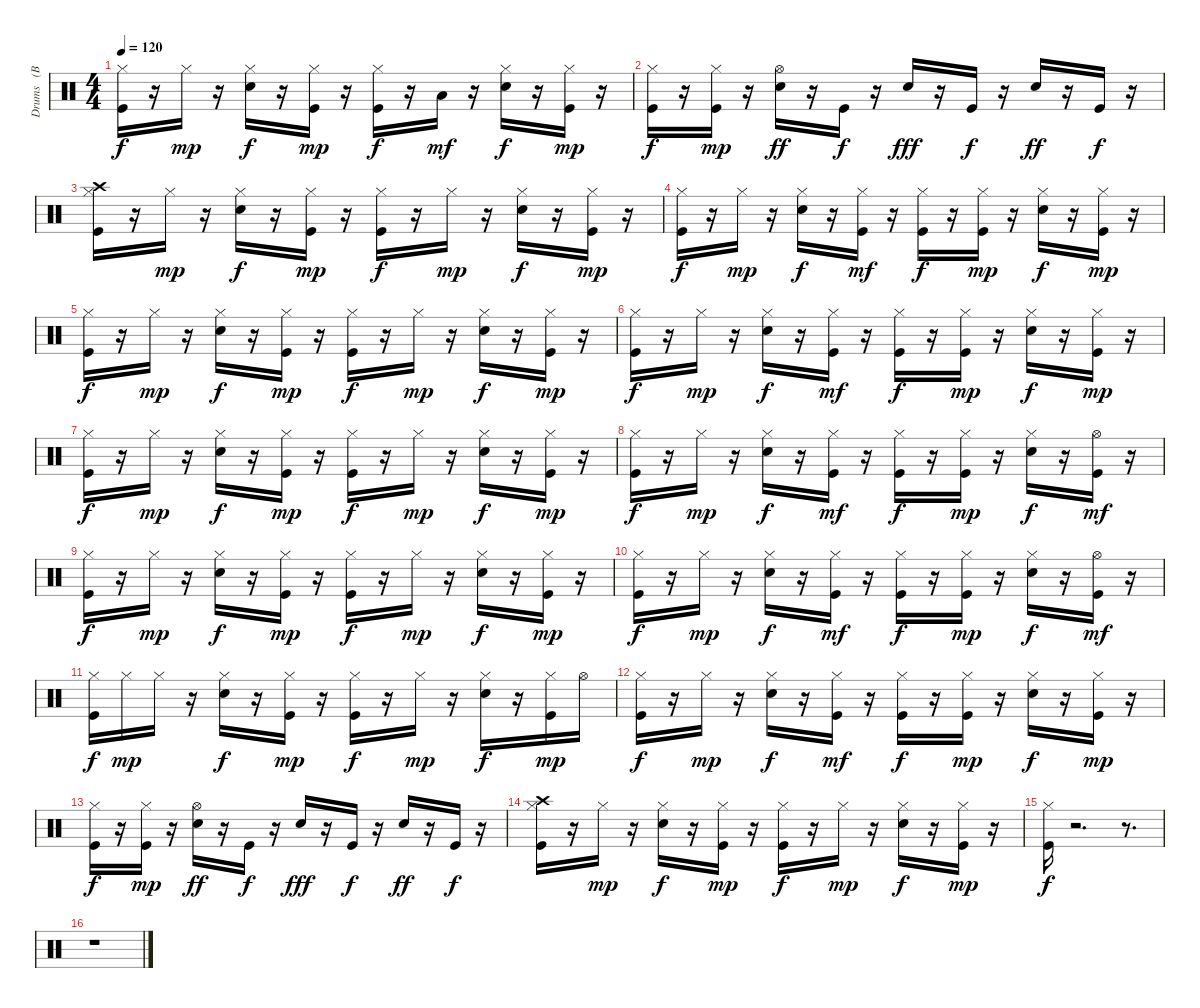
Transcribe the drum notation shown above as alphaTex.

\track ("Drums   (BB)" "Drums   (B") {instrument percussion}
\staff {score}
\articulation defaults
\ts (4 4)
\tempo 120
\clef neutral
\ks c
("Kick (hit)" "Hi-Hat (closed)").16{dy f} r.16 "Hi-Hat (closed)".16{dy mp} r.16 ("Snare (hit) 2" "Hi-Hat (closed)").16{dy f} r.16 ("Kick (hit)" "Hi-Hat (closed)").16{dy mp} r.16 ("Kick (hit)" "Hi-Hat (closed)").16{dy f} r.16 "Low Floor Tom (hit)".16{dy mf} r.16 ("Snare (hit) 2" "Hi-Hat (closed)").16{dy f} r.16 ("Kick (hit)" "Hi-Hat (closed)").16{dy mp} r.16 |
("Kick (hit)" "Hi-Hat (closed)").16{dy f} r.16 ("Kick (hit)" "Hi-Hat (closed)").16{dy mp} r.16 ("Snare (hit) 2" "Hi-Hat (open)").16{dy ff} r.16 "Kick (hit)".16{dy f} r.16 "Snare (hit) 2".16{dy fff} r.16 "Kick (hit)".16{dy f} r.16 "Snare (hit) 2".16{dy ff} r.16 "Kick (hit)".16{dy f} r.16 |
("Kick (hit)" "Hi-Hat (closed)" "Crash high (hit)").16 r.16 "Hi-Hat (closed)".16{dy mp} r.16 ("Snare (hit) 2" "Hi-Hat (closed)").16{dy f} r.16 ("Kick (hit)" "Hi-Hat (closed)").16{dy mp} r.16 ("Kick (hit)" "Hi-Hat (closed)").16{dy f} r.16 "Hi-Hat (closed)".16{dy mp} r.16 ("Snare (hit) 2" "Hi-Hat (closed)").16{dy f} r.16 ("Kick (hit)" "Hi-Hat (closed)").16{dy mp} r.16 |
("Kick (hit)" "Hi-Hat (closed)").16{dy f} r.16 "Hi-Hat (closed)".16{dy mp} r.16 ("Snare (hit) 2" "Hi-Hat (closed)").16{dy f} r.16 ("Kick (hit)" "Hi-Hat (closed)").16{dy mf} r.16 ("Kick (hit)" "Hi-Hat (closed)").16{dy f} r.16 ("Kick (hit)" "Hi-Hat (closed)").16{dy mp} r.16 ("Snare (hit) 2" "Hi-Hat (closed)").16{dy f} r.16 ("Kick (hit)" "Hi-Hat (closed)").16{dy mp} r.16 |
("Kick (hit)" "Hi-Hat (closed)").16{dy f} r.16 "Hi-Hat (closed)".16{dy mp} r.16 ("Snare (hit) 2" "Hi-Hat (closed)").16{dy f} r.16 ("Kick (hit)" "Hi-Hat (closed)").16{dy mp} r.16 ("Kick (hit)" "Hi-Hat (closed)").16{dy f} r.16 "Hi-Hat (closed)".16{dy mp} r.16 ("Snare (hit) 2" "Hi-Hat (closed)").16{dy f} r.16 ("Kick (hit)" "Hi-Hat (closed)").16{dy mp} r.16 |
("Kick (hit)" "Hi-Hat (closed)").16{dy f} r.16 "Hi-Hat (closed)".16{dy mp} r.16 ("Snare (hit) 2" "Hi-Hat (closed)").16{dy f} r.16 ("Kick (hit)" "Hi-Hat (closed)").16{dy mf} r.16 ("Kick (hit)" "Hi-Hat (closed)").16{dy f} r.16 ("Kick (hit)" "Hi-Hat (closed)").16{dy mp} r.16 ("Snare (hit) 2" "Hi-Hat (closed)").16{dy f} r.16 ("Kick (hit)" "Hi-Hat (closed)").16{dy mp} r.16 |
("Kick (hit)" "Hi-Hat (closed)").16{dy f} r.16 "Hi-Hat (closed)".16{dy mp} r.16 ("Snare (hit) 2" "Hi-Hat (closed)").16{dy f} r.16 ("Kick (hit)" "Hi-Hat (closed)").16{dy mp} r.16 ("Kick (hit)" "Hi-Hat (closed)").16{dy f} r.16 "Hi-Hat (closed)".16{dy mp} r.16 ("Snare (hit) 2" "Hi-Hat (closed)").16{dy f} r.16 ("Kick (hit)" "Hi-Hat (closed)").16{dy mp} r.16 |
("Kick (hit)" "Hi-Hat (closed)").16{dy f} r.16 "Hi-Hat (closed)".16{dy mp} r.16 ("Snare (hit) 2" "Hi-Hat (closed)").16{dy f} r.16 ("Kick (hit)" "Hi-Hat (closed)").16{dy mf} r.16 ("Kick (hit)" "Hi-Hat (closed)").16{dy f} r.16 ("Kick (hit)" "Hi-Hat (closed)").16{dy mp} r.16 ("Snare (hit) 2" "Hi-Hat (closed)").16{dy f} r.16 ("Kick (hit)" "Hi-Hat (open)").16{dy mf} r.16 |
("Kick (hit)" "Hi-Hat (closed)").16{dy f} r.16 "Hi-Hat (closed)".16{dy mp} r.16 ("Snare (hit) 2" "Hi-Hat (closed)").16{dy f} r.16 ("Kick (hit)" "Hi-Hat (closed)").16{dy mp} r.16 ("Kick (hit)" "Hi-Hat (closed)").16{dy f} r.16 "Hi-Hat (closed)".16{dy mp} r.16 ("Snare (hit) 2" "Hi-Hat (closed)").16{dy f} r.16 ("Kick (hit)" "Hi-Hat (closed)").16{dy mp} r.16 |
("Kick (hit)" "Hi-Hat (closed)").16{dy f} r.16 "Hi-Hat (closed)".16{dy mp} r.16 ("Snare (hit) 2" "Hi-Hat (closed)").16{dy f} r.16 ("Kick (hit)" "Hi-Hat (closed)").16{dy mf} r.16 ("Kick (hit)" "Hi-Hat (closed)").16{dy f} r.16 ("Kick (hit)" "Hi-Hat (closed)").16{dy mp} r.16 ("Snare (hit) 2" "Hi-Hat (closed)").16{dy f} r.16 ("Kick (hit)" "Hi-Hat (open)").16{dy mf} r.16 |
("Kick (hit)" "Hi-Hat (closed)").16{dy f} "Hi-Hat (closed)".16{dy mp} "Hi-Hat (closed)".16 r.16 ("Snare (hit) 2" "Hi-Hat (closed)").16{dy f} r.16 ("Kick (hit)" "Hi-Hat (closed)").16{dy mp} r.16 ("Kick (hit)" "Hi-Hat (closed)").16{dy f} r.16 "Hi-Hat (closed)".16{dy mp} r.16 ("Snare (hit) 2" "Hi-Hat (closed)").16{dy f} r.16 ("Kick (hit)" "Hi-Hat (closed)").16{dy mp} "Hi-Hat (open)".16 |
("Kick (hit)" "Hi-Hat (closed)").16{dy f} r.16 "Hi-Hat (closed)".16{dy mp} r.16 ("Snare (hit) 2" "Hi-Hat (closed)").16{dy f} r.16 ("Kick (hit)" "Hi-Hat (closed)").16{dy mf} r.16 ("Kick (hit)" "Hi-Hat (closed)").16{dy f} r.16 ("Kick (hit)" "Hi-Hat (closed)").16{dy mp} r.16 ("Snare (hit) 2" "Hi-Hat (closed)").16{dy f} r.16 ("Kick (hit)" "Hi-Hat (closed)").16{dy mp} r.16 |
("Kick (hit)" "Hi-Hat (closed)").16{dy f} r.16 ("Kick (hit)" "Hi-Hat (closed)").16{dy mp} r.16 ("Snare (hit) 2" "Hi-Hat (open)").16{dy ff} r.16 "Kick (hit)".16{dy f} r.16 "Snare (hit) 2".16{dy fff} r.16 "Kick (hit)".16{dy f} r.16 "Snare (hit) 2".16{dy ff} r.16 "Kick (hit)".16{dy f} r.16 |
("Kick (hit)" "Hi-Hat (closed)" "Crash high (hit)").16 r.16 "Hi-Hat (closed)".16{dy mp} r.16 ("Snare (hit) 2" "Hi-Hat (closed)").16{dy f} r.16 ("Kick (hit)" "Hi-Hat (closed)").16{dy mp} r.16 ("Kick (hit)" "Hi-Hat (closed)").16{dy f} r.16 "Hi-Hat (closed)".16{dy mp} r.16 ("Snare (hit) 2" "Hi-Hat (closed)").16{dy f} r.16 ("Kick (hit)" "Hi-Hat (closed)").16{dy mp} r.16 |
("Kick (hit)" "Hi-Hat (closed)").16{dy f} r.2{d} r.8{d} |
r.1
